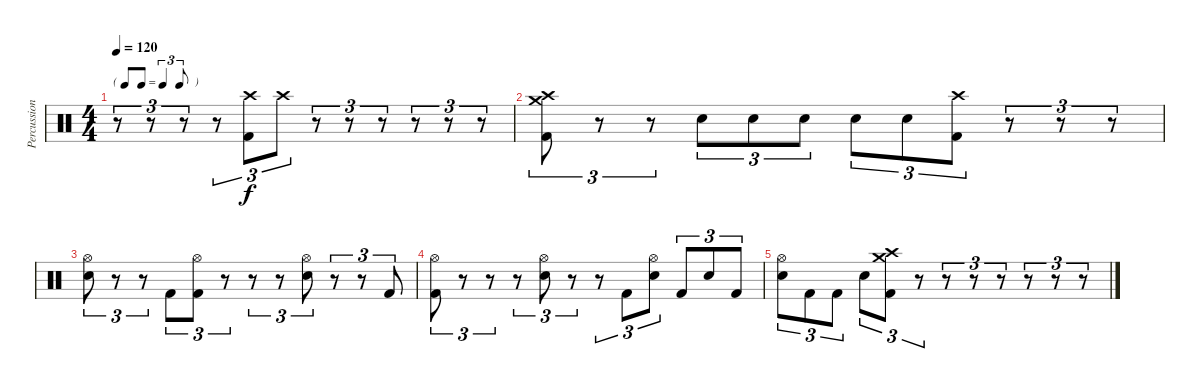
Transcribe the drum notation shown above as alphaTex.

\track ("Percussion" "Percussion") {instrument percussion}
\staff {score}
\articulation defaults
\ts (4 4)
\tf triplet8th
\tempo 120
\clef neutral
\ks c
r.8{tu (3 2) dy f} r.8{tu (3 2)} r.8{tu (3 2)} r.8{tu (3 2)} ("Crash high (hit)" "Kick (hit) 2").8{tu (3 2) volume 13} "Crash high (hit)".8{tu (3 2) volume 0} r.8{tu (3 2)} r.8{tu (3 2)} r.8{tu (3 2)} r.8{tu (3 2)} r.8{tu (3 2)} r.8{tu (3 2)} |
("Crash medium (hit)" "Crash high (hit)" "Kick (hit) 2").8{tu (3 2) volume 13} r.8{tu (3 2)} r.8{tu (3 2)} "Snare (hit) 2".8{tu (3 2)} "Snare (hit) 2".8{tu (3 2)} "Snare (hit) 2".8{tu (3 2)} "Snare (hit) 2".8{tu (3 2)} "Snare (hit) 2".8{tu (3 2)} ("Crash high (hit)" "Kick (hit) 2").8{tu (3 2)} r.8{tu (3 2)} r.8{tu (3 2)} r.8{tu (3 2)} |
("Hi-Hat (open)" "Snare (hit) 2").8{tu (3 2)} r.8{tu (3 2)} r.8{tu (3 2)} "Kick (hit) 2".8{tu (3 2)} ("Hi-Hat (open)" "Kick (hit) 2").8{tu (3 2)} r.8{tu (3 2)} r.8{tu (3 2)} r.8{tu (3 2)} ("Hi-Hat (open)" "Snare (hit) 2").8{tu (3 2)} r.8{tu (3 2)} r.8{tu (3 2)} "Kick (hit) 2".8{tu (3 2)} |
("Hi-Hat (open)" "Kick (hit) 2").8{tu (3 2)} r.8{tu (3 2)} r.8{tu (3 2)} r.8{tu (3 2)} ("Hi-Hat (open)" "Snare (hit) 2").8{tu (3 2)} r.8{tu (3 2)} r.8{tu (3 2)} "Kick (hit) 2".8{tu (3 2)} ("Hi-Hat (open)" "Snare (hit) 2").8{tu (3 2)} "Kick (hit) 2".8{tu (3 2)} "Snare (hit) 2".8{tu (3 2)} "Kick (hit) 2".8{tu (3 2)} |
("Hi-Hat (open)" "Snare (hit) 2").8{tu (3 2)} "Kick (hit) 2".8{tu (3 2)} "Kick (hit) 2".8{tu (3 2)} "Snare (hit) 2".8{tu (3 2)} ("Crash medium (hit)" "Crash high (hit)" "Kick (hit) 2").8{tu (3 2)} r.8{tu (3 2)} r.8{tu (3 2)} r.8{tu (3 2)} r.8{tu (3 2)} r.8{tu (3 2)} r.8{tu (3 2)} r.8{tu (3 2)}
